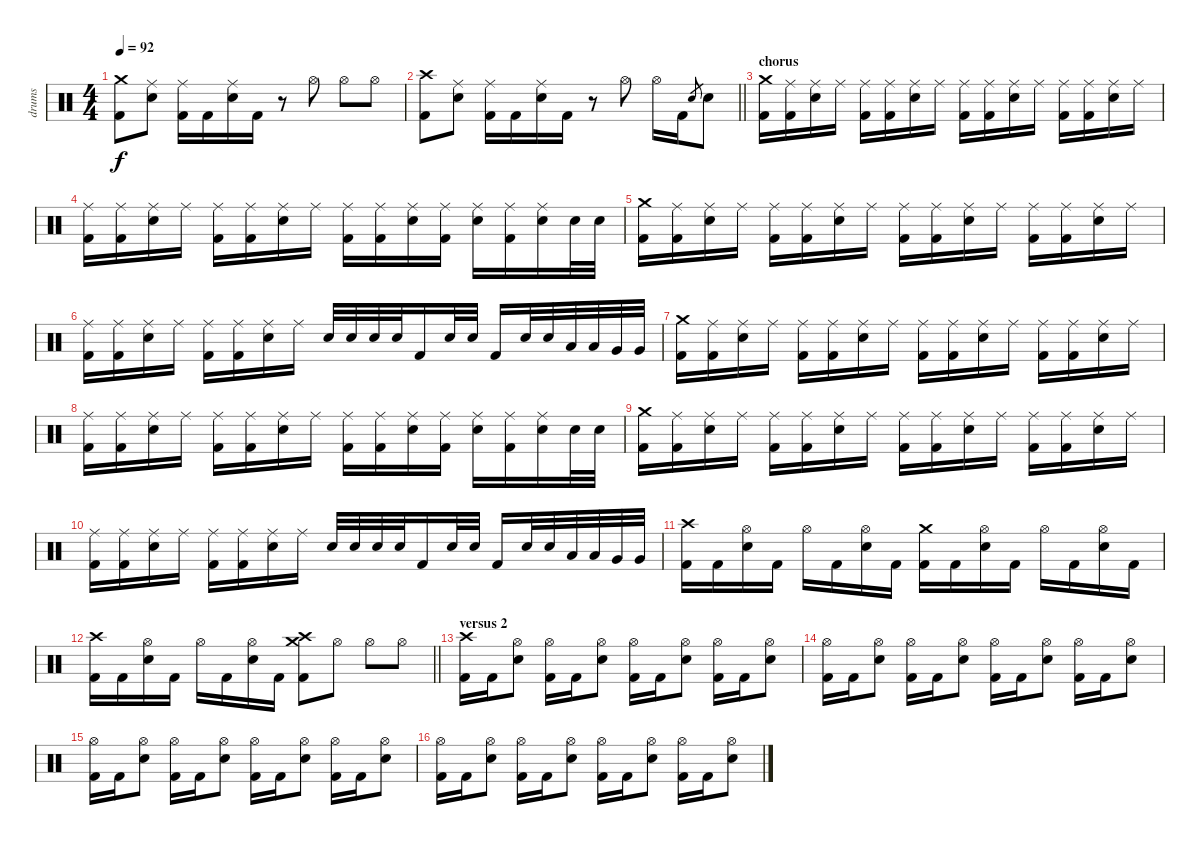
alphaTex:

\track ("drums" "drums") {instrument percussion}
\staff {score}
\articulation defaults
\ts (4 4)
\tempo 92
\clef neutral
\ks c
("Crash medium (hit)" "Kick (hit) 2").8{dy f} ("Ride (middle)" "Snare (hit) 2").8 ("Ride (middle)" "Kick (hit) 2").16 "Kick (hit) 2".16 ("Ride (middle)" "Snare (hit) 2").16 "Kick (hit) 2".16 r.8 "Hi-Hat (open)".8 "Hi-Hat (open)".8 "Hi-Hat (open)".8 |
\barLineRight lightlight
("Crash high (hit)" "Kick (hit) 2").8 ("Ride (middle)" "Snare (hit) 2").8 ("Ride (middle)" "Kick (hit) 2").16 "Kick (hit) 2".16 ("Ride (middle)" "Snare (hit) 2").16 "Kick (hit) 2".16 r.8 "Hi-Hat (open)".8 "Hi-Hat (open)".16 "Kick (hit) 2".16 "Snare (hit) 2".8{gr} "Snare (hit) 2".8 |
\section ("" "chorus")
("Crash medium (hit)" "Kick (hit) 2").16 ("Ride (middle)" "Kick (hit) 2").16 ("Ride (middle)" "Snare (hit) 2").16 "Ride (middle)".16 ("Ride (middle)" "Kick (hit) 2").16 ("Ride (middle)" "Kick (hit) 2").16 ("Ride (middle)" "Snare (hit) 2").16 "Ride (middle)".16 ("Ride (middle)" "Kick (hit) 2").16 ("Ride (middle)" "Kick (hit) 2").16 ("Ride (middle)" "Snare (hit) 2").16 "Ride (middle)".16 ("Ride (middle)" "Kick (hit) 2").16 ("Ride (middle)" "Kick (hit) 2").16 ("Ride (middle)" "Snare (hit) 2").16 "Ride (middle)".16 |
("Ride (middle)" "Kick (hit) 2").16 ("Ride (middle)" "Kick (hit) 2").16 ("Ride (middle)" "Snare (hit) 2").16 "Ride (middle)".16 ("Ride (middle)" "Kick (hit) 2").16 ("Ride (middle)" "Kick (hit) 2").16 ("Ride (middle)" "Snare (hit) 2").16 "Ride (middle)".16 ("Ride (middle)" "Kick (hit) 2").16 ("Ride (middle)" "Kick (hit) 2").16 ("Ride (middle)" "Snare (hit) 2").16 ("Ride (middle)" "Kick (hit) 2").16 ("Ride (middle)" "Snare (hit) 2").16 ("Ride (middle)" "Kick (hit) 2").16 ("Ride (middle)" "Snare (hit) 2").16 "Snare (hit) 2".32 "Snare (hit) 2".32 |
("Crash medium (hit)" "Kick (hit) 2").16 ("Ride (middle)" "Kick (hit) 2").16 ("Ride (middle)" "Snare (hit) 2").16 "Ride (middle)".16 ("Ride (middle)" "Kick (hit) 2").16 ("Ride (middle)" "Kick (hit) 2").16 ("Ride (middle)" "Snare (hit) 2").16 "Ride (middle)".16 ("Ride (middle)" "Kick (hit) 2").16 ("Ride (middle)" "Kick (hit) 2").16 ("Ride (middle)" "Snare (hit) 2").16 "Ride (middle)".16 ("Ride (middle)" "Kick (hit) 2").16 ("Ride (middle)" "Kick (hit) 2").16 ("Ride (middle)" "Snare (hit) 2").16 "Ride (middle)".16 |
("Ride (middle)" "Kick (hit) 2").16 ("Ride (middle)" "Kick (hit) 2").16 ("Ride (middle)" "Snare (hit) 2").16 "Ride (middle)".16 ("Ride (middle)" "Kick (hit) 2").16 ("Ride (middle)" "Kick (hit) 2").16 ("Ride (middle)" "Snare (hit) 2").16 "Ride (middle)".16 "Snare (hit) 2".32 "Snare (hit) 2".32 "Snare (hit) 2".32 "Snare (hit) 2".32 "Kick (hit) 2".16 "Snare (hit) 2".32 "Snare (hit) 2".32 "Kick (hit) 2".16 "Snare (hit) 2".32 "Snare (hit) 2".32 "Low Tom (hit)".32 "Low Tom (hit)".32 "Very Low Tom (hit)".32 "Very Low Tom (hit)".32 |
("Crash medium (hit)" "Kick (hit) 2").16 ("Ride (middle)" "Kick (hit) 2").16 ("Ride (middle)" "Snare (hit) 2").16 "Ride (middle)".16 ("Ride (middle)" "Kick (hit) 2").16 ("Ride (middle)" "Kick (hit) 2").16 ("Ride (middle)" "Snare (hit) 2").16 "Ride (middle)".16 ("Ride (middle)" "Kick (hit) 2").16 ("Ride (middle)" "Kick (hit) 2").16 ("Ride (middle)" "Snare (hit) 2").16 "Ride (middle)".16 ("Ride (middle)" "Kick (hit) 2").16 ("Ride (middle)" "Kick (hit) 2").16 ("Ride (middle)" "Snare (hit) 2").16 "Ride (middle)".16 |
("Ride (middle)" "Kick (hit) 2").16 ("Ride (middle)" "Kick (hit) 2").16 ("Ride (middle)" "Snare (hit) 2").16 "Ride (middle)".16 ("Ride (middle)" "Kick (hit) 2").16 ("Ride (middle)" "Kick (hit) 2").16 ("Ride (middle)" "Snare (hit) 2").16 "Ride (middle)".16 ("Ride (middle)" "Kick (hit) 2").16 ("Ride (middle)" "Kick (hit) 2").16 ("Ride (middle)" "Snare (hit) 2").16 ("Ride (middle)" "Kick (hit) 2").16 ("Ride (middle)" "Snare (hit) 2").16 ("Ride (middle)" "Kick (hit) 2").16 ("Ride (middle)" "Snare (hit) 2").16 "Snare (hit) 2".32 "Snare (hit) 2".32 |
("Crash medium (hit)" "Kick (hit) 2").16 ("Ride (middle)" "Kick (hit) 2").16 ("Ride (middle)" "Snare (hit) 2").16 "Ride (middle)".16 ("Ride (middle)" "Kick (hit) 2").16 ("Ride (middle)" "Kick (hit) 2").16 ("Ride (middle)" "Snare (hit) 2").16 "Ride (middle)".16 ("Ride (middle)" "Kick (hit) 2").16 ("Ride (middle)" "Kick (hit) 2").16 ("Ride (middle)" "Snare (hit) 2").16 "Ride (middle)".16 ("Ride (middle)" "Kick (hit) 2").16 ("Ride (middle)" "Kick (hit) 2").16 ("Ride (middle)" "Snare (hit) 2").16 "Ride (middle)".16 |
("Ride (middle)" "Kick (hit) 2").16 ("Ride (middle)" "Kick (hit) 2").16 ("Ride (middle)" "Snare (hit) 2").16 "Ride (middle)".16 ("Ride (middle)" "Kick (hit) 2").16 ("Ride (middle)" "Kick (hit) 2").16 ("Ride (middle)" "Snare (hit) 2").16 "Ride (middle)".16 "Snare (hit) 2".32 "Snare (hit) 2".32 "Snare (hit) 2".32 "Snare (hit) 2".32 "Kick (hit) 2".16 "Snare (hit) 2".32 "Snare (hit) 2".32 "Kick (hit) 2".16 "Snare (hit) 2".32 "Snare (hit) 2".32 "Low Tom (hit)".32 "Low Tom (hit)".32 "Very Low Tom (hit)".32 "Very Low Tom (hit)".32 |
("Crash high (hit)" "Kick (hit) 2").16 "Kick (hit) 2".16 ("Hi-Hat (open)" "Snare (hit) 2").16 "Kick (hit) 2".16 "Hi-Hat (open)".16 "Kick (hit) 2".16 ("Hi-Hat (open)" "Snare (hit) 2").16 "Kick (hit) 2".16 ("Crash medium (hit)" "Kick (hit) 2").16 "Kick (hit) 2".16 ("Hi-Hat (open)" "Snare (hit) 2").16 "Kick (hit) 2".16 "Hi-Hat (open)".16 "Kick (hit) 2".16 ("Hi-Hat (open)" "Snare (hit) 2").16 "Kick (hit) 2".16 |
\barLineRight lightlight
("Crash high (hit)" "Kick (hit) 2").16 "Kick (hit) 2".16 ("Hi-Hat (open)" "Snare (hit) 2").16 "Kick (hit) 2".16 "Hi-Hat (open)".16 "Kick (hit) 2".16 ("Hi-Hat (open)" "Snare (hit) 2").16 "Kick (hit) 2".16 ("Crash medium (hit)" "Crash high (hit)" "Kick (hit) 2").8 "Hi-Hat (open)".8 "Hi-Hat (open)".8 "Hi-Hat (open)".8 |
\section ("" "versus 2")
("Crash high (hit)" "Kick (hit) 2").16 "Kick (hit) 2".16 ("Hi-Hat (open)" "Snare (hit) 2").8 ("Hi-Hat (open)" "Kick (hit) 2").16 "Kick (hit) 2".16 ("Hi-Hat (open)" "Snare (hit) 2").8 ("Hi-Hat (open)" "Kick (hit) 2").16 "Kick (hit) 2".16 ("Hi-Hat (open)" "Snare (hit) 2").8 ("Hi-Hat (open)" "Kick (hit) 2").16 "Kick (hit) 2".16 ("Hi-Hat (open)" "Snare (hit) 2").8 |
("Hi-Hat (open)" "Kick (hit) 2").16 "Kick (hit) 2".16 ("Hi-Hat (open)" "Snare (hit) 2").8 ("Hi-Hat (open)" "Kick (hit) 2").16 "Kick (hit) 2".16 ("Hi-Hat (open)" "Snare (hit) 2").8 ("Hi-Hat (open)" "Kick (hit) 2").16 "Kick (hit) 2".16 ("Hi-Hat (open)" "Snare (hit) 2").8 ("Hi-Hat (open)" "Kick (hit) 2").16 "Kick (hit) 2".16 ("Hi-Hat (open)" "Snare (hit) 2").8 |
("Hi-Hat (open)" "Kick (hit) 2").16 "Kick (hit) 2".16 ("Hi-Hat (open)" "Snare (hit) 2").8 ("Hi-Hat (open)" "Kick (hit) 2").16 "Kick (hit) 2".16 ("Hi-Hat (open)" "Snare (hit) 2").8 ("Hi-Hat (open)" "Kick (hit) 2").16 "Kick (hit) 2".16 ("Hi-Hat (open)" "Snare (hit) 2").8 ("Hi-Hat (open)" "Kick (hit) 2").16 "Kick (hit) 2".16 ("Hi-Hat (open)" "Snare (hit) 2").8 |
("Hi-Hat (open)" "Kick (hit) 2").16 "Kick (hit) 2".16 ("Hi-Hat (open)" "Snare (hit) 2").8 ("Hi-Hat (open)" "Kick (hit) 2").16 "Kick (hit) 2".16 ("Hi-Hat (open)" "Snare (hit) 2").8 ("Hi-Hat (open)" "Kick (hit) 2").16 "Kick (hit) 2".16 ("Hi-Hat (open)" "Snare (hit) 2").8 ("Hi-Hat (open)" "Kick (hit) 2").16 "Kick (hit) 2".16 ("Hi-Hat (open)" "Snare (hit) 2").8
